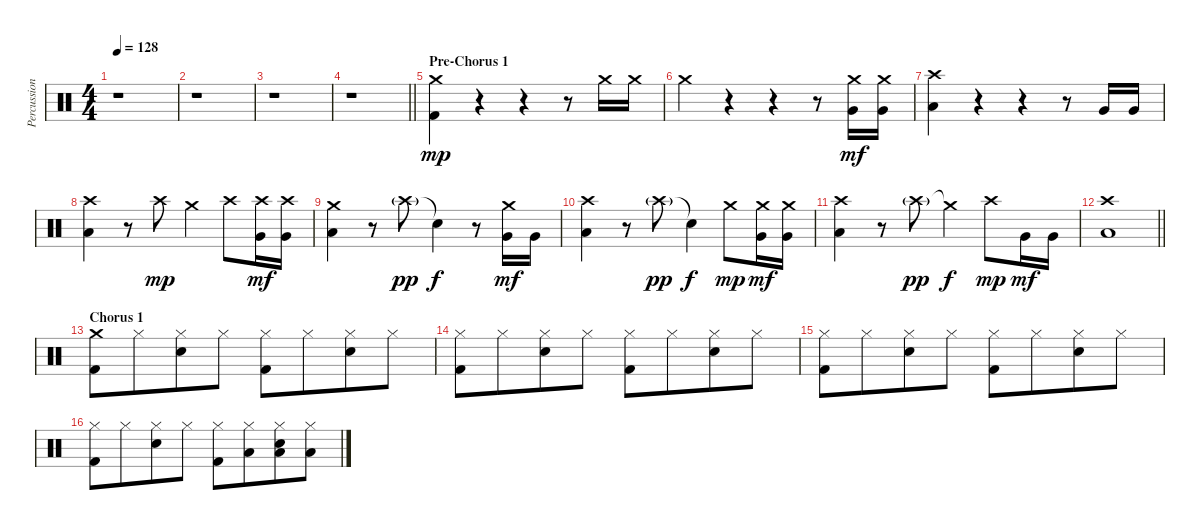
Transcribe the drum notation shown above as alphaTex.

\track ("Percussion" "Percussion") {instrument percussion}
\staff {score}
\articulation defaults
\ts (4 4)
\tempo 128
\clef neutral
\ks c
r.1{dy mp} |
r.1 |
r.1 |
\barLineRight lightlight
r.1 |
\section ("" "Pre-Chorus 1")
("Crash medium (hit)" "Kick (hit) 2").4 r.4 r.4 r.8 "Crash medium (hit)".16 "Crash medium (hit)".16 |
"Crash medium (hit)".4 r.4 r.4 r.8 ("Crash medium (hit)" "Very Low Tom (hit)").16{dy mf} ("Crash medium (hit)" "Very Low Tom (hit)").16 |
("Crash high (hit)" "Low Floor Tom (hit)").4 r.4 r.4 r.8 "Very Low Tom (hit)".16 "Very Low Tom (hit)".16 |
("Crash high (hit)" "Low Floor Tom (hit)").4 r.8 "Crash high (hit)".8{dy mp} "Crash medium (hit)".4 "Crash high (hit)".8 ("Crash high (hit)" "Very Low Tom (hit)").16{dy mf} ("Crash high (hit)" "Very Low Tom (hit)").16 |
("Crash medium (hit)" "Low Floor Tom (hit)").4 r.8 "Crash high (hit)"{g}.8{dy pp} "Snare (hit)"{t}.4{dy f} r.8 ("Crash medium (hit)" "Very Low Tom (hit)").16{dy mf} "Very Low Tom (hit)".16 |
("Crash high (hit)" "Low Floor Tom (hit)").4 r.8 "Crash high (hit)"{g}.8{dy pp} "Snare (hit)"{t}.4{dy f} "Crash medium (hit)".8{dy mp} ("Crash medium (hit)" "Very Low Tom (hit)").16{dy mf} ("Crash medium (hit)" "Very Low Tom (hit)").16 |
("Crash high (hit)" "Low Floor Tom (hit)").4 r.8 "Crash high (hit)"{g}.8{dy pp} "Crash medium (hit)"{t}.4{dy f} "Crash high (hit)".8{dy mp} "Very Low Tom (hit)".16{dy mf} "Very Low Tom (hit)".16 |
\barLineRight lightlight
("Crash high (hit)" "Low Floor Tom (hit)").1 |
\section ("" "Chorus 1")
("Crash medium (hit)" "Kick (hit) 2").8 "Hi-Hat (closed)".8{beam merge} ("Hi-Hat (closed)" "Snare (hit) 2").8 "Hi-Hat (closed)".8 ("Hi-Hat (closed)" "Kick (hit) 2").8 "Hi-Hat (closed)".8{beam merge} ("Hi-Hat (closed)" "Snare (hit) 2").8 "Hi-Hat (closed)".8 |
("Hi-Hat (closed)" "Kick (hit) 2").8 "Hi-Hat (closed)".8{beam merge} ("Hi-Hat (closed)" "Snare (hit) 2").8 "Hi-Hat (closed)".8 ("Hi-Hat (closed)" "Kick (hit) 2").8 "Hi-Hat (closed)".8{beam merge} ("Hi-Hat (closed)" "Snare (hit) 2").8 "Hi-Hat (closed)".8 |
("Hi-Hat (closed)" "Kick (hit) 2").8 "Hi-Hat (closed)".8{beam merge} ("Hi-Hat (closed)" "Snare (hit) 2").8 "Hi-Hat (closed)".8 ("Hi-Hat (closed)" "Kick (hit) 2").8 "Hi-Hat (closed)".8{beam merge} ("Hi-Hat (closed)" "Snare (hit) 2").8 "Hi-Hat (closed)".8 |
("Hi-Hat (closed)" "Kick (hit) 2").8 "Hi-Hat (closed)".8{beam merge} ("Hi-Hat (closed)" "Snare (hit) 2").8 "Hi-Hat (closed)".8 ("Hi-Hat (closed)" "Kick (hit) 2").8 ("Hi-Hat (closed)" "Low Tom (hit)").8{beam merge} ("Hi-Hat (closed)" "Low Tom (hit)" "Snare (hit) 2").8 ("Hi-Hat (closed)" "Low Tom (hit)").8
